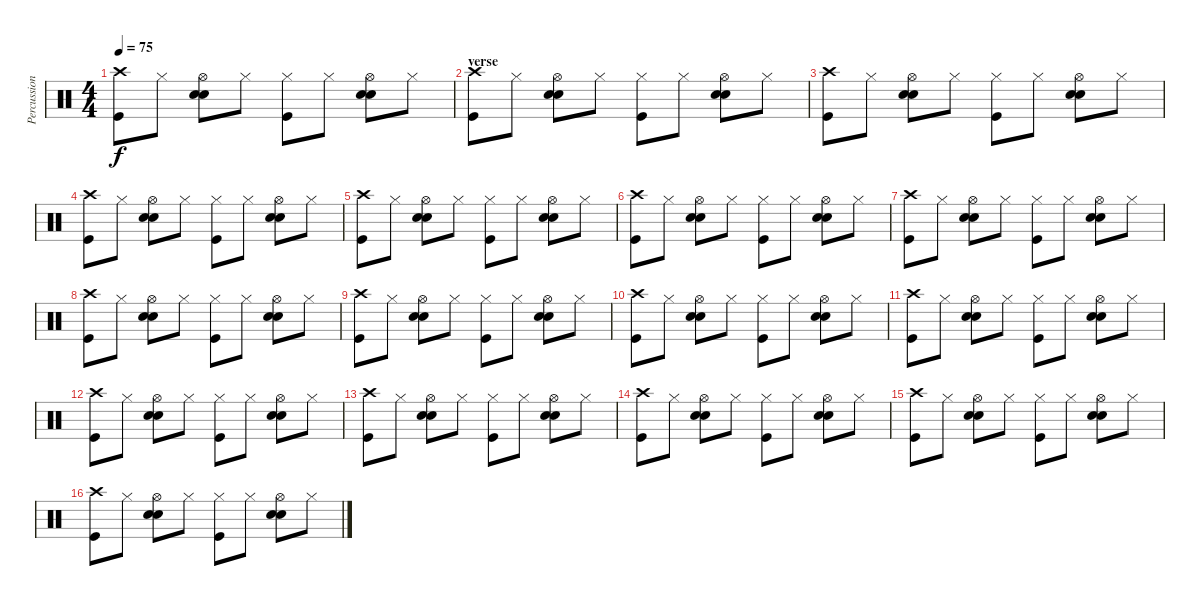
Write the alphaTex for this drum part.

\track ("Percussions" "Percussion") {instrument percussion}
\staff {score}
\articulation defaults
\ts (4 4)
\tempo 75
\clef neutral
\ks c
("Crash high (hit)" "Kick (hit)").8{dy f} "Hi-Hat (closed)".8 ("Hi-Hat (open)" "Snare (hit) 2" "Electric Snare (hit)").8 "Hi-Hat (closed)".8 ("Hi-Hat (closed)" "Kick (hit)").8 "Hi-Hat (closed)".8 ("Hi-Hat (open)" "Snare (hit) 2" "Electric Snare (hit)").8 "Hi-Hat (closed)".8 |
\section ("" "verse")
("Crash high (hit)" "Kick (hit)").8 "Hi-Hat (closed)".8 ("Hi-Hat (open)" "Snare (hit) 2" "Electric Snare (hit)").8 "Hi-Hat (closed)".8 ("Hi-Hat (closed)" "Kick (hit)").8 "Hi-Hat (closed)".8 ("Hi-Hat (open)" "Snare (hit) 2" "Electric Snare (hit)").8 "Hi-Hat (closed)".8 |
("Crash high (hit)" "Kick (hit)").8 "Hi-Hat (closed)".8 ("Hi-Hat (open)" "Snare (hit) 2" "Electric Snare (hit)").8 "Hi-Hat (closed)".8 ("Hi-Hat (closed)" "Kick (hit)").8 "Hi-Hat (closed)".8 ("Hi-Hat (open)" "Snare (hit) 2" "Electric Snare (hit)").8 "Hi-Hat (closed)".8 |
("Crash high (hit)" "Kick (hit)").8 "Hi-Hat (closed)".8 ("Hi-Hat (open)" "Snare (hit) 2" "Electric Snare (hit)").8 "Hi-Hat (closed)".8 ("Hi-Hat (closed)" "Kick (hit)").8 "Hi-Hat (closed)".8 ("Hi-Hat (open)" "Snare (hit) 2" "Electric Snare (hit)").8 "Hi-Hat (closed)".8 |
("Crash high (hit)" "Kick (hit)").8 "Hi-Hat (closed)".8 ("Hi-Hat (open)" "Snare (hit) 2" "Electric Snare (hit)").8 "Hi-Hat (closed)".8 ("Hi-Hat (closed)" "Kick (hit)").8 "Hi-Hat (closed)".8 ("Hi-Hat (open)" "Snare (hit) 2" "Electric Snare (hit)").8 "Hi-Hat (closed)".8 |
("Crash high (hit)" "Kick (hit)").8 "Hi-Hat (closed)".8 ("Hi-Hat (open)" "Snare (hit) 2" "Electric Snare (hit)").8 "Hi-Hat (closed)".8 ("Hi-Hat (closed)" "Kick (hit)").8 "Hi-Hat (closed)".8 ("Hi-Hat (open)" "Snare (hit) 2" "Electric Snare (hit)").8 "Hi-Hat (closed)".8 |
("Crash high (hit)" "Kick (hit)").8 "Hi-Hat (closed)".8 ("Hi-Hat (open)" "Snare (hit) 2" "Electric Snare (hit)").8 "Hi-Hat (closed)".8 ("Hi-Hat (closed)" "Kick (hit)").8 "Hi-Hat (closed)".8 ("Hi-Hat (open)" "Snare (hit) 2" "Electric Snare (hit)").8 "Hi-Hat (closed)".8 |
("Crash high (hit)" "Kick (hit)").8 "Hi-Hat (closed)".8 ("Hi-Hat (open)" "Snare (hit) 2" "Electric Snare (hit)").8 "Hi-Hat (closed)".8 ("Hi-Hat (closed)" "Kick (hit)").8 "Hi-Hat (closed)".8 ("Hi-Hat (open)" "Snare (hit) 2" "Electric Snare (hit)").8 "Hi-Hat (closed)".8 |
("Crash high (hit)" "Kick (hit)").8 "Hi-Hat (closed)".8 ("Hi-Hat (open)" "Snare (hit) 2" "Electric Snare (hit)").8 "Hi-Hat (closed)".8 ("Hi-Hat (closed)" "Kick (hit)").8 "Hi-Hat (closed)".8 ("Hi-Hat (open)" "Snare (hit) 2" "Electric Snare (hit)").8 "Hi-Hat (closed)".8 |
("Crash high (hit)" "Kick (hit)").8 "Hi-Hat (closed)".8 ("Hi-Hat (open)" "Snare (hit) 2" "Electric Snare (hit)").8 "Hi-Hat (closed)".8 ("Hi-Hat (closed)" "Kick (hit)").8 "Hi-Hat (closed)".8 ("Hi-Hat (open)" "Snare (hit) 2" "Electric Snare (hit)").8 "Hi-Hat (closed)".8 |
("Crash high (hit)" "Kick (hit)").8 "Hi-Hat (closed)".8 ("Hi-Hat (open)" "Snare (hit) 2" "Electric Snare (hit)").8 "Hi-Hat (closed)".8 ("Hi-Hat (closed)" "Kick (hit)").8 "Hi-Hat (closed)".8 ("Hi-Hat (open)" "Snare (hit) 2" "Electric Snare (hit)").8 "Hi-Hat (closed)".8 |
("Crash high (hit)" "Kick (hit)").8 "Hi-Hat (closed)".8 ("Hi-Hat (open)" "Snare (hit) 2" "Electric Snare (hit)").8 "Hi-Hat (closed)".8 ("Hi-Hat (closed)" "Kick (hit)").8 "Hi-Hat (closed)".8 ("Hi-Hat (open)" "Snare (hit) 2" "Electric Snare (hit)").8 "Hi-Hat (closed)".8 |
("Crash high (hit)" "Kick (hit)").8 "Hi-Hat (closed)".8 ("Hi-Hat (open)" "Snare (hit) 2" "Electric Snare (hit)").8 "Hi-Hat (closed)".8 ("Hi-Hat (closed)" "Kick (hit)").8 "Hi-Hat (closed)".8 ("Hi-Hat (open)" "Snare (hit) 2" "Electric Snare (hit)").8 "Hi-Hat (closed)".8 |
("Crash high (hit)" "Kick (hit)").8 "Hi-Hat (closed)".8 ("Hi-Hat (open)" "Snare (hit) 2" "Electric Snare (hit)").8 "Hi-Hat (closed)".8 ("Hi-Hat (closed)" "Kick (hit)").8 "Hi-Hat (closed)".8 ("Hi-Hat (open)" "Snare (hit) 2" "Electric Snare (hit)").8 "Hi-Hat (closed)".8 |
("Crash high (hit)" "Kick (hit)").8 "Hi-Hat (closed)".8 ("Hi-Hat (open)" "Snare (hit) 2" "Electric Snare (hit)").8 "Hi-Hat (closed)".8 ("Hi-Hat (closed)" "Kick (hit)").8 "Hi-Hat (closed)".8 ("Hi-Hat (open)" "Snare (hit) 2" "Electric Snare (hit)").8 "Hi-Hat (closed)".8 |
("Crash high (hit)" "Kick (hit)").8 "Hi-Hat (closed)".8 ("Hi-Hat (open)" "Snare (hit) 2" "Electric Snare (hit)").8 "Hi-Hat (closed)".8 ("Hi-Hat (closed)" "Kick (hit)").8 "Hi-Hat (closed)".8 ("Hi-Hat (open)" "Snare (hit) 2" "Electric Snare (hit)").8 "Hi-Hat (closed)".8
